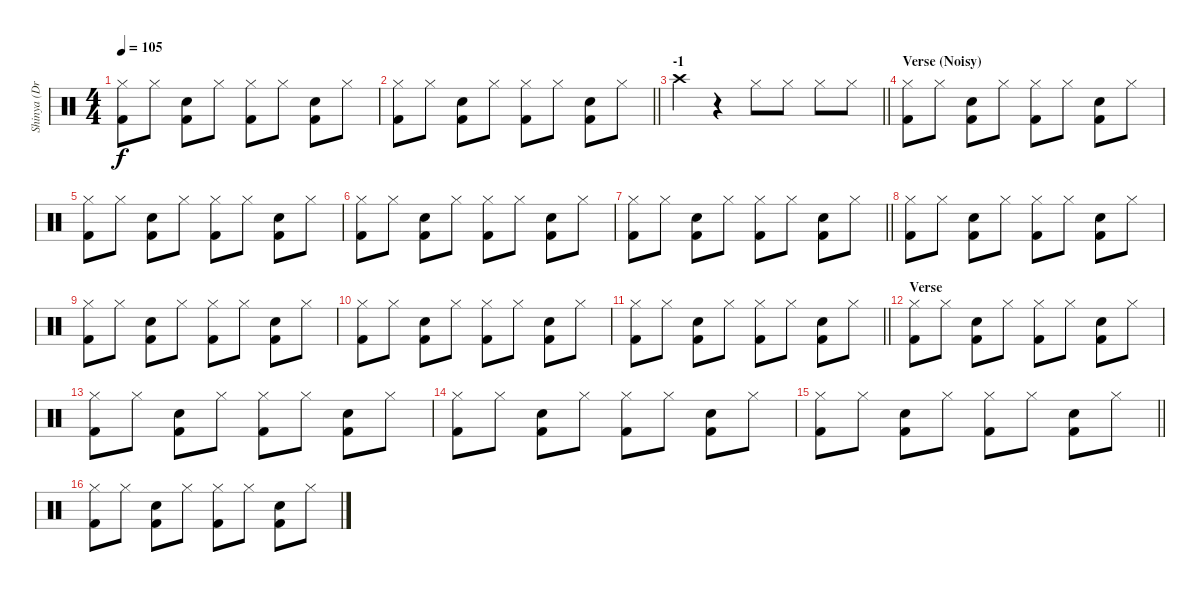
\track ("Shinya (Drums)" "Shinya (Dr") {instrument percussion}
\staff {score}
\articulation defaults
\ts (4 4)
\tempo 105
\clef neutral
\ks c
("Hi-Hat (closed)" "Kick (hit) 2").8{dy f} "Hi-Hat (closed)".8 ("Snare (hit) 2" "Kick (hit) 2").8 "Hi-Hat (closed)".8 ("Hi-Hat (closed)" "Kick (hit) 2").8 "Hi-Hat (closed)".8 ("Snare (hit) 2" "Kick (hit) 2").8 "Hi-Hat (closed)".8 |
\barLineRight lightlight
("Hi-Hat (closed)" "Kick (hit) 2").8 "Hi-Hat (closed)".8 ("Snare (hit) 2" "Kick (hit) 2").8 "Hi-Hat (closed)".8 ("Hi-Hat (closed)" "Kick (hit) 2").8 "Hi-Hat (closed)".8 ("Snare (hit) 2" "Kick (hit) 2").8 "Hi-Hat (closed)".8 |
\section ("" "-1")
\barLineRight lightlight "Crash high (hit)".4
r.4 "Hi-Hat (closed)".8 "Hi-Hat (closed)".8 "Hi-Hat (closed)".8 "Hi-Hat (closed)".8 |
\section ("" "Verse (Noisy)")
("Hi-Hat (closed)" "Kick (hit) 2").8 "Hi-Hat (closed)".8 ("Snare (hit) 2" "Kick (hit) 2").8 "Hi-Hat (closed)".8 ("Hi-Hat (closed)" "Kick (hit) 2").8 "Hi-Hat (closed)".8 ("Snare (hit) 2" "Kick (hit) 2").8 "Hi-Hat (closed)".8 |
("Hi-Hat (closed)" "Kick (hit) 2").8 "Hi-Hat (closed)".8 ("Snare (hit) 2" "Kick (hit) 2").8 "Hi-Hat (closed)".8 ("Hi-Hat (closed)" "Kick (hit) 2").8 "Hi-Hat (closed)".8 ("Snare (hit) 2" "Kick (hit) 2").8 "Hi-Hat (closed)".8 |
("Hi-Hat (closed)" "Kick (hit) 2").8 "Hi-Hat (closed)".8 ("Snare (hit) 2" "Kick (hit) 2").8 "Hi-Hat (closed)".8 ("Hi-Hat (closed)" "Kick (hit) 2").8 "Hi-Hat (closed)".8 ("Snare (hit) 2" "Kick (hit) 2").8 "Hi-Hat (closed)".8 |
\barLineRight lightlight
("Hi-Hat (closed)" "Kick (hit) 2").8 "Hi-Hat (closed)".8 ("Snare (hit) 2" "Kick (hit) 2").8 "Hi-Hat (closed)".8 ("Hi-Hat (closed)" "Kick (hit) 2").8 "Hi-Hat (closed)".8 ("Snare (hit) 2" "Kick (hit) 2").8 "Hi-Hat (closed)".8 |
("Hi-Hat (closed)" "Kick (hit) 2").8 "Hi-Hat (closed)".8 ("Snare (hit) 2" "Kick (hit) 2").8 "Hi-Hat (closed)".8 ("Hi-Hat (closed)" "Kick (hit) 2").8 "Hi-Hat (closed)".8 ("Snare (hit) 2" "Kick (hit) 2").8 "Hi-Hat (closed)".8 |
("Hi-Hat (closed)" "Kick (hit) 2").8 "Hi-Hat (closed)".8 ("Snare (hit) 2" "Kick (hit) 2").8 "Hi-Hat (closed)".8 ("Hi-Hat (closed)" "Kick (hit) 2").8 "Hi-Hat (closed)".8 ("Snare (hit) 2" "Kick (hit) 2").8 "Hi-Hat (closed)".8 |
("Hi-Hat (closed)" "Kick (hit) 2").8 "Hi-Hat (closed)".8 ("Snare (hit) 2" "Kick (hit) 2").8 "Hi-Hat (closed)".8 ("Hi-Hat (closed)" "Kick (hit) 2").8 "Hi-Hat (closed)".8 ("Snare (hit) 2" "Kick (hit) 2").8 "Hi-Hat (closed)".8 |
\barLineRight lightlight
("Hi-Hat (closed)" "Kick (hit) 2").8 "Hi-Hat (closed)".8 ("Snare (hit) 2" "Kick (hit) 2").8 "Hi-Hat (closed)".8 ("Hi-Hat (closed)" "Kick (hit) 2").8 "Hi-Hat (closed)".8 ("Snare (hit) 2" "Kick (hit) 2").8 "Hi-Hat (closed)".8 |
\section ("" "Verse")
("Hi-Hat (closed)" "Kick (hit) 2").8 "Hi-Hat (closed)".8 ("Snare (hit) 2" "Kick (hit) 2").8 "Hi-Hat (closed)".8 ("Hi-Hat (closed)" "Kick (hit) 2").8 "Hi-Hat (closed)".8 ("Snare (hit) 2" "Kick (hit) 2").8 "Hi-Hat (closed)".8 |
("Hi-Hat (closed)" "Kick (hit) 2").8 "Hi-Hat (closed)".8 ("Snare (hit) 2" "Kick (hit) 2").8 "Hi-Hat (closed)".8 ("Hi-Hat (closed)" "Kick (hit) 2").8 "Hi-Hat (closed)".8 ("Snare (hit) 2" "Kick (hit) 2").8 "Hi-Hat (closed)".8 |
("Hi-Hat (closed)" "Kick (hit) 2").8 "Hi-Hat (closed)".8 ("Snare (hit) 2" "Kick (hit) 2").8 "Hi-Hat (closed)".8 ("Hi-Hat (closed)" "Kick (hit) 2").8 "Hi-Hat (closed)".8 ("Snare (hit) 2" "Kick (hit) 2").8 "Hi-Hat (closed)".8 |
\barLineRight lightlight
("Hi-Hat (closed)" "Kick (hit) 2").8 "Hi-Hat (closed)".8 ("Snare (hit) 2" "Kick (hit) 2").8 "Hi-Hat (closed)".8 ("Hi-Hat (closed)" "Kick (hit) 2").8 "Hi-Hat (closed)".8 ("Snare (hit) 2" "Kick (hit) 2").8 "Hi-Hat (closed)".8 |
("Hi-Hat (closed)" "Kick (hit) 2").8 "Hi-Hat (closed)".8 ("Snare (hit) 2" "Kick (hit) 2").8 "Hi-Hat (closed)".8 ("Hi-Hat (closed)" "Kick (hit) 2").8 "Hi-Hat (closed)".8 ("Snare (hit) 2" "Kick (hit) 2").8 "Hi-Hat (closed)".8
